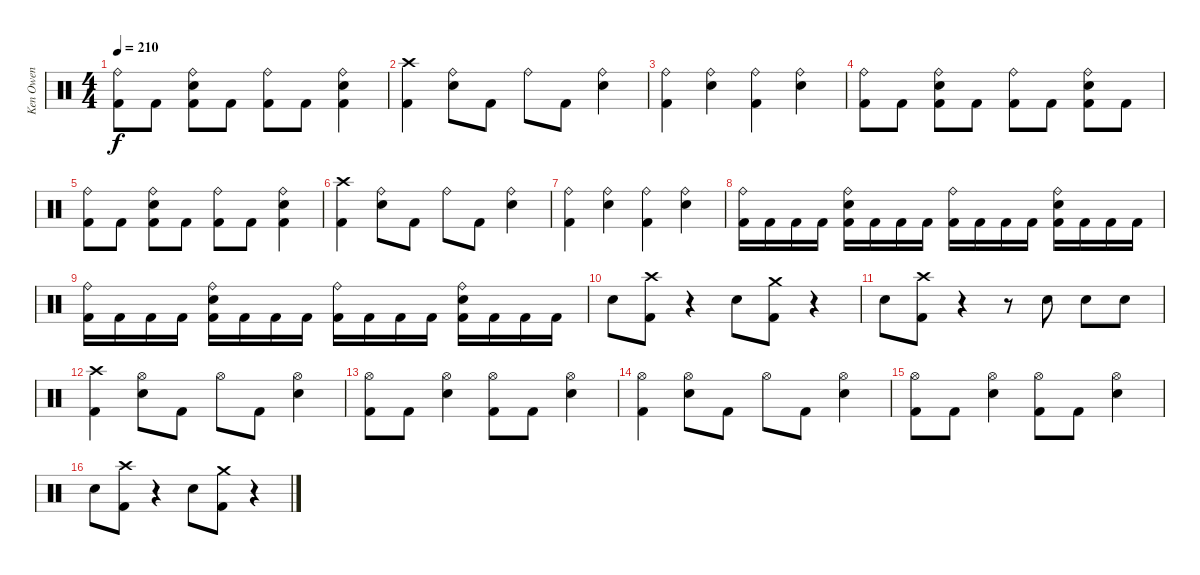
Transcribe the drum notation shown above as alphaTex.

\track ("Ken Owen" "Ken Owen") {instrument percussion}
\staff {score}
\articulation defaults
\ts (4 4)
\tempo 210
\clef neutral
\ks c
("Ride (bell)" "Kick (hit) 2").8{dy f} "Kick (hit) 2".8 ("Snare (hit) 2" "Ride (bell)" "Kick (hit) 2").8 "Kick (hit) 2".8 ("Ride (bell)" "Kick (hit) 2").8 "Kick (hit) 2".8 ("Snare (hit) 2" "Ride (bell)" "Kick (hit) 2").4 |
("Crash high (hit)" "Kick (hit) 2").4 ("Ride (bell)" "Snare (hit) 2").8 "Kick (hit) 2".8 "Ride (bell)".8 "Kick (hit) 2".8 ("Ride (bell)" "Snare (hit) 2").4 |
("Ride (bell)" "Kick (hit) 2").4 ("Ride (bell)" "Snare (hit) 2").4 ("Ride (bell)" "Kick (hit) 2").4 ("Ride (bell)" "Snare (hit) 2").4 |
("Ride (bell)" "Kick (hit) 2").8 "Kick (hit) 2".8 ("Snare (hit) 2" "Ride (bell)" "Kick (hit) 2").8 "Kick (hit) 2".8 ("Ride (bell)" "Kick (hit) 2").8 "Kick (hit) 2".8 ("Snare (hit) 2" "Ride (bell)" "Kick (hit) 2").8 "Kick (hit) 2".8 |
("Ride (bell)" "Kick (hit) 2").8 "Kick (hit) 2".8 ("Snare (hit) 2" "Ride (bell)" "Kick (hit) 2").8 "Kick (hit) 2".8 ("Ride (bell)" "Kick (hit) 2").8 "Kick (hit) 2".8 ("Snare (hit) 2" "Ride (bell)" "Kick (hit) 2").4 |
("Crash high (hit)" "Kick (hit) 2").4 ("Ride (bell)" "Snare (hit) 2").8 "Kick (hit) 2".8 "Ride (bell)".8 "Kick (hit) 2".8 ("Ride (bell)" "Snare (hit) 2").4 |
("Ride (bell)" "Kick (hit) 2").4 ("Ride (bell)" "Snare (hit) 2").4 ("Ride (bell)" "Kick (hit) 2").4 ("Ride (bell)" "Snare (hit) 2").4 |
("Ride (bell)" "Kick (hit) 2").16 "Kick (hit) 2".16 "Kick (hit) 2".16 "Kick (hit) 2".16 ("Snare (hit) 2" "Ride (bell)" "Kick (hit) 2").16 "Kick (hit) 2".16 "Kick (hit) 2".16 "Kick (hit) 2".16 ("Ride (bell)" "Kick (hit) 2").16 "Kick (hit) 2".16 "Kick (hit) 2".16 "Kick (hit) 2".16 ("Snare (hit) 2" "Ride (bell)" "Kick (hit) 2").16 "Kick (hit) 2".16 "Kick (hit) 2".16 "Kick (hit) 2".16 |
("Ride (bell)" "Kick (hit) 2").16 "Kick (hit) 2".16 "Kick (hit) 2".16 "Kick (hit) 2".16 ("Snare (hit) 2" "Ride (bell)" "Kick (hit) 2").16 "Kick (hit) 2".16 "Kick (hit) 2".16 "Kick (hit) 2".16 ("Ride (bell)" "Kick (hit) 2").16 "Kick (hit) 2".16 "Kick (hit) 2".16 "Kick (hit) 2".16 ("Snare (hit) 2" "Ride (bell)" "Kick (hit) 2").16 "Kick (hit) 2".16 "Kick (hit) 2".16 "Kick (hit) 2".16 |
"Snare (hit) 2".8 ("Crash high (hit)" "Kick (hit) 2").8 r.4 "Snare (hit) 2".8 ("Crash medium (hit)" "Kick (hit) 2").8 r.4 |
"Snare (hit) 2".8 ("Crash high (hit)" "Kick (hit) 2").8 r.4 r.8 "Snare (hit) 2".8 "Snare (hit) 2".8 "Snare (hit) 2".8 |
("Crash high (hit)" "Kick (hit) 2").4 ("Hi-Hat (open)" "Snare (hit) 2").8 "Kick (hit) 2".8 "Hi-Hat (open)".8 "Kick (hit) 2".8 ("Hi-Hat (open)" "Snare (hit) 2").4 |
("Hi-Hat (open)" "Kick (hit) 2").8 "Kick (hit) 2".8 ("Hi-Hat (open)" "Snare (hit) 2").4 ("Hi-Hat (open)" "Kick (hit) 2").8 "Kick (hit) 2".8 ("Hi-Hat (open)" "Snare (hit) 2").4 |
("Hi-Hat (open)" "Kick (hit) 2").4 ("Hi-Hat (open)" "Snare (hit) 2").8 "Kick (hit) 2".8 "Hi-Hat (open)".8 "Kick (hit) 2".8 ("Hi-Hat (open)" "Snare (hit) 2").4 |
("Hi-Hat (open)" "Kick (hit) 2").8 "Kick (hit) 2".8 ("Hi-Hat (open)" "Snare (hit) 2").4 ("Hi-Hat (open)" "Kick (hit) 2").8 "Kick (hit) 2".8 ("Hi-Hat (open)" "Snare (hit) 2").4 |
"Snare (hit) 2".8 ("Crash high (hit)" "Kick (hit) 2").8 r.4 "Snare (hit) 2".8 ("Crash medium (hit)" "Kick (hit) 2").8 r.4
